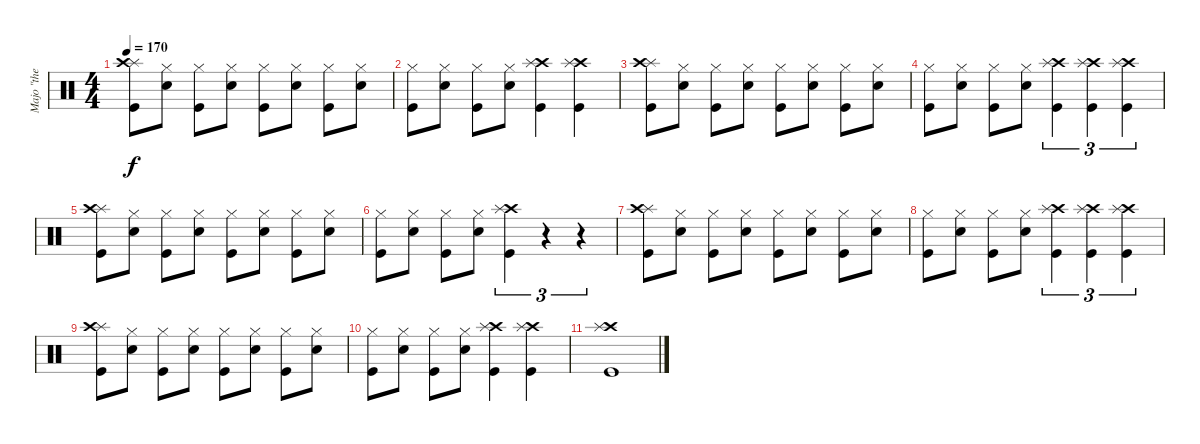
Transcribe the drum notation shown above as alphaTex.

\track ("Majo \"the Dremmel\" Hirt" "Majo \"the ") {instrument percussion}
\staff {score}
\articulation defaults
\ts (4 4)
\tempo 170
\clef neutral
\ks c
("Splash (hit)" "Crash high (hit)" "Kick (hit)").8{dy f} ("Hi-Hat (closed)" "Electric Snare (hit)").8 ("Hi-Hat (closed)" "Kick (hit)").8 ("Hi-Hat (closed)" "Electric Snare (hit)").8 ("Hi-Hat (closed)" "Kick (hit)").8 ("Hi-Hat (closed)" "Electric Snare (hit)").8 ("Hi-Hat (closed)" "Kick (hit)").8 ("Hi-Hat (closed)" "Electric Snare (hit)").8 |
("Hi-Hat (closed)" "Kick (hit)").8 ("Hi-Hat (closed)" "Electric Snare (hit)").8 ("Hi-Hat (closed)" "Kick (hit)").8 ("Hi-Hat (closed)" "Electric Snare (hit)").8 ("Crash high (hit)" "Splash (hit)" "Kick (hit)").4 ("Crash high (hit)" "Splash (hit)" "Kick (hit)").4 |
("Splash (hit)" "Crash high (hit)" "Kick (hit)").8 ("Hi-Hat (closed)" "Electric Snare (hit)").8 ("Hi-Hat (closed)" "Kick (hit)").8 ("Hi-Hat (closed)" "Electric Snare (hit)").8 ("Hi-Hat (closed)" "Kick (hit)").8 ("Hi-Hat (closed)" "Electric Snare (hit)").8 ("Hi-Hat (closed)" "Kick (hit)").8 ("Hi-Hat (closed)" "Electric Snare (hit)").8 |
("Hi-Hat (closed)" "Kick (hit)").8 ("Hi-Hat (closed)" "Electric Snare (hit)").8 ("Hi-Hat (closed)" "Kick (hit)").8 ("Hi-Hat (closed)" "Electric Snare (hit)").8 ("Crash high (hit)" "Splash (hit)" "Kick (hit)").4{tu (3 2)} ("Crash high (hit)" "Splash (hit)" "Kick (hit)").4{tu (3 2)} ("Crash high (hit)" "Splash (hit)" "Kick (hit)").4{tu (3 2)} |
("Splash (hit)" "Crash high (hit)" "Kick (hit)").8 ("Hi-Hat (closed)" "Electric Snare (hit)").8 ("Hi-Hat (closed)" "Kick (hit)").8 ("Hi-Hat (closed)" "Electric Snare (hit)").8 ("Hi-Hat (closed)" "Kick (hit)").8 ("Hi-Hat (closed)" "Electric Snare (hit)").8 ("Hi-Hat (closed)" "Kick (hit)").8 ("Hi-Hat (closed)" "Electric Snare (hit)").8 |
("Hi-Hat (closed)" "Kick (hit)").8 ("Hi-Hat (closed)" "Electric Snare (hit)").8 ("Hi-Hat (closed)" "Kick (hit)").8 ("Hi-Hat (closed)" "Electric Snare (hit)").8 ("Crash high (hit)" "Splash (hit)" "Kick (hit)").4{tu (3 2)} r.4{tu (3 2)} r.4{tu (3 2)} |
("Splash (hit)" "Crash high (hit)" "Kick (hit)").8 ("Hi-Hat (closed)" "Electric Snare (hit)").8 ("Hi-Hat (closed)" "Kick (hit)").8 ("Hi-Hat (closed)" "Electric Snare (hit)").8 ("Hi-Hat (closed)" "Kick (hit)").8 ("Hi-Hat (closed)" "Electric Snare (hit)").8 ("Hi-Hat (closed)" "Kick (hit)").8 ("Hi-Hat (closed)" "Electric Snare (hit)").8 |
("Hi-Hat (closed)" "Kick (hit)").8 ("Hi-Hat (closed)" "Electric Snare (hit)").8 ("Hi-Hat (closed)" "Kick (hit)").8 ("Hi-Hat (closed)" "Electric Snare (hit)").8 ("Crash high (hit)" "Splash (hit)" "Kick (hit)").4{tu (3 2)} ("Crash high (hit)" "Splash (hit)" "Kick (hit)").4{tu (3 2)} ("Crash high (hit)" "Splash (hit)" "Kick (hit)").4{tu (3 2)} |
("Splash (hit)" "Crash high (hit)" "Kick (hit)").8 ("Hi-Hat (closed)" "Electric Snare (hit)").8 ("Hi-Hat (closed)" "Kick (hit)").8 ("Hi-Hat (closed)" "Electric Snare (hit)").8 ("Hi-Hat (closed)" "Kick (hit)").8 ("Hi-Hat (closed)" "Electric Snare (hit)").8 ("Hi-Hat (closed)" "Kick (hit)").8 ("Hi-Hat (closed)" "Electric Snare (hit)").8 |
("Hi-Hat (closed)" "Kick (hit)").8 ("Hi-Hat (closed)" "Electric Snare (hit)").8 ("Hi-Hat (closed)" "Kick (hit)").8 ("Hi-Hat (closed)" "Electric Snare (hit)").8 ("Crash high (hit)" "Splash (hit)" "Kick (hit)").4 ("Crash high (hit)" "Splash (hit)" "Kick (hit)").4 |
("Crash high (hit)" "Splash (hit)" "Kick (hit)").1
